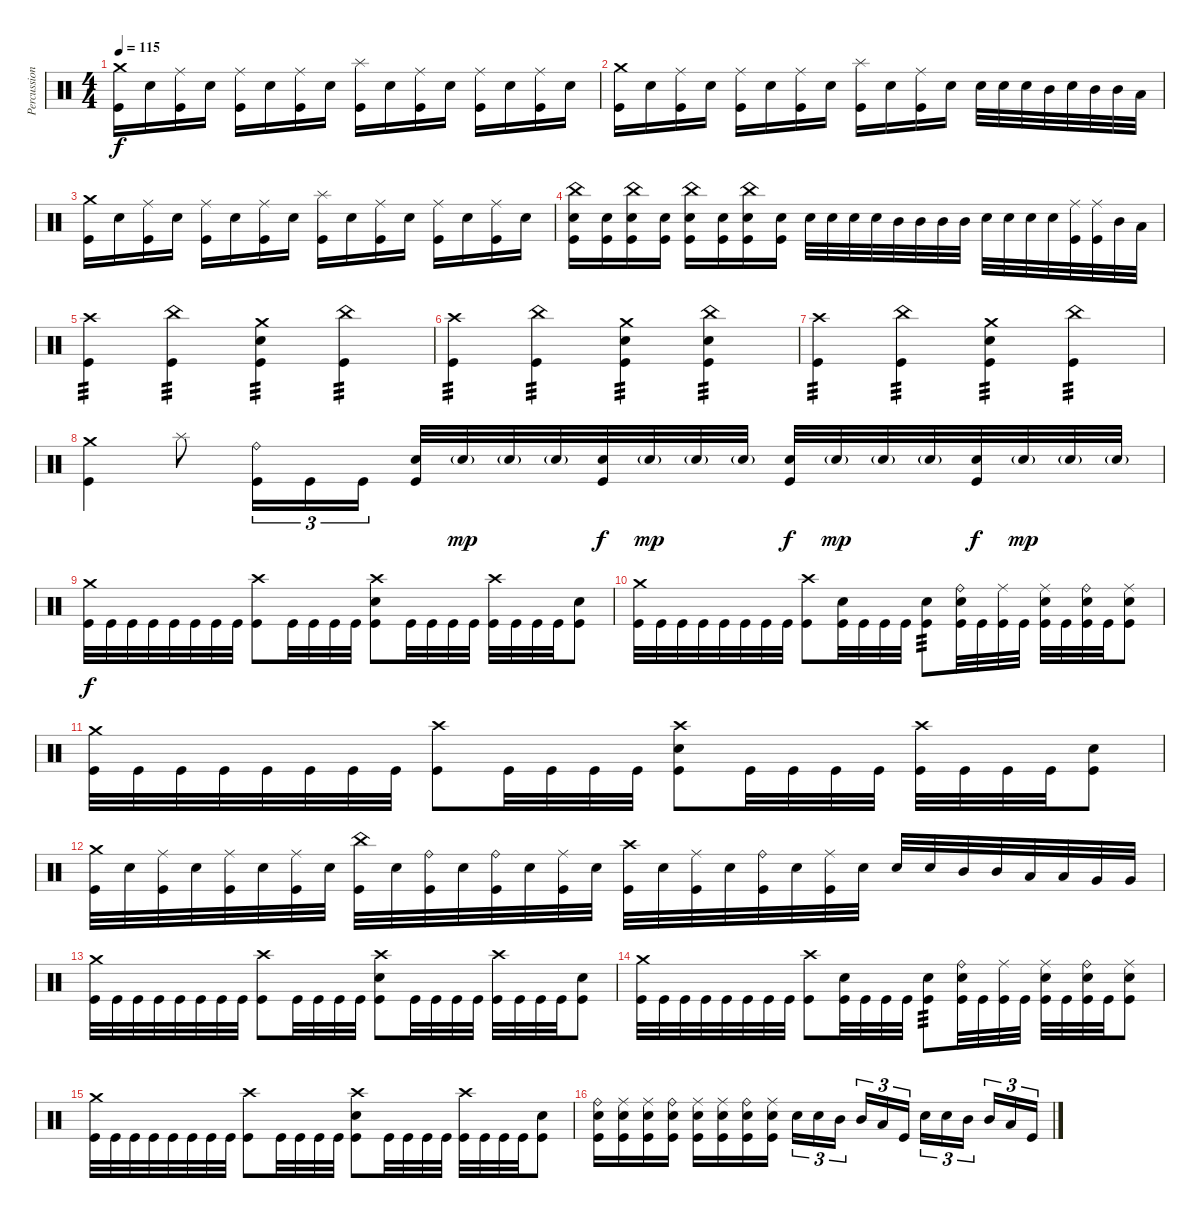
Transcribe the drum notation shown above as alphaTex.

\track ("Percussion" "Percussion") {instrument percussion}
\staff {score}
\articulation defaults
\ts (4 4)
\tempo 115
\clef neutral
\ks c
("Crash medium (hit)" "Kick (hit)").16{dy f} "Electric Snare (hit)".16 ("Ride (middle)" "Kick (hit)").16 "Electric Snare (hit)".16 ("Ride (middle)" "Kick (hit)").16 "Electric Snare (hit)".16 ("Ride (middle)" "Kick (hit)").16 "Electric Snare (hit)".16 ("Splash (hit)" "Kick (hit)").16 "Electric Snare (hit)".16 ("Ride (middle)" "Kick (hit)").16 "Electric Snare (hit)".16 ("Ride (middle)" "Kick (hit)").16 "Electric Snare (hit)".16 ("Ride (middle)" "Kick (hit)").16 "Electric Snare (hit)".16 |
("Crash medium (hit)" "Kick (hit)").16 "Electric Snare (hit)".16 ("Ride (middle)" "Kick (hit)").16 "Electric Snare (hit)".16 ("Ride (middle)" "Kick (hit)").16 "Electric Snare (hit)".16 ("Ride (middle)" "Kick (hit)").16 "Electric Snare (hit)".16 ("Splash (hit)" "Kick (hit)").16 "Electric Snare (hit)".16 ("Ride (middle)" "Kick (hit)").16 "Electric Snare (hit)".16 "Electric Snare (hit)".32 "Electric Snare (hit)".32 "Electric Snare (hit)".32 "Mid Tom (hit)".32 "Electric Snare (hit)".32 "Mid Tom (hit)".32 "Mid Tom (hit)".32 "Low Tom (hit)".32 |
("Crash medium (hit)" "Kick (hit)").16 "Electric Snare (hit)".16 ("Ride (middle)" "Kick (hit)").16 "Electric Snare (hit)".16 ("Ride (middle)" "Kick (hit)").16 "Electric Snare (hit)".16 ("Ride (middle)" "Kick (hit)").16 "Electric Snare (hit)".16 ("Splash (hit)" "Kick (hit)").16 "Electric Snare (hit)".16 ("Ride (middle)" "Kick (hit)").16 "Electric Snare (hit)".16 ("Ride (middle)" "Kick (hit)").16 "Electric Snare (hit)".16 ("Ride (middle)" "Kick (hit)").16 "Electric Snare (hit)".16 |
("China (hit)" "Electric Snare (hit)" "Kick (hit)").16 ("Electric Snare (hit)" "Kick (hit)").16 ("China (hit)" "Electric Snare (hit)" "Kick (hit)").16 ("Electric Snare (hit)" "Kick (hit)").16 ("China (hit)" "Electric Snare (hit)" "Kick (hit)").16 ("Electric Snare (hit)" "Kick (hit)").16 ("China (hit)" "Electric Snare (hit)" "Kick (hit)").16 ("Electric Snare (hit)" "Kick (hit)").16 "Electric Snare (hit)".32 "Electric Snare (hit)".32 "Electric Snare (hit)".32 "Electric Snare (hit)".32 "Mid Tom (hit)".32 "Mid Tom (hit)".32 "Mid Tom (hit)".32 "Mid Tom (hit)".32 "Electric Snare (hit)".32 "Electric Snare (hit)".32 "Electric Snare (hit)".32 "Electric Snare (hit)".32 ("Ride (middle)" "Kick (hit)").32 ("Ride (middle)" "Kick (hit)").32 "Mid Tom (hit)".32 "Low Tom (hit)".32 |
("Crash high (hit)" "Kick (hit)").4{tp 3} ("China (hit)" "Kick (hit)").4{tp 3} ("Crash medium (hit)" "Electric Snare (hit)" "Kick (hit)").4{tp 3} ("China (hit)" "Kick (hit)").4{tp 3} |
("Crash high (hit)" "Kick (hit)").4{tp 3} ("China (hit)" "Kick (hit)").4{tp 3} ("Crash medium (hit)" "Electric Snare (hit)" "Kick (hit)").4{tp 3} ("China (hit)" "Electric Snare (hit)" "Kick (hit)").4{tp 3} |
("Crash high (hit)" "Kick (hit)").4{tp 3} ("China (hit)" "Kick (hit)").4{tp 3} ("Crash medium (hit)" "Electric Snare (hit)" "Kick (hit)").4{tp 3} ("China (hit)" "Kick (hit)").4{tp 3} |
("Crash medium (hit)" "Kick (hit)").4 "Splash (hit)".8 ("Ride (bell)" "Kick (hit)").16{tu (3 2)} "Kick (hit)".16{tu (3 2)} "Kick (hit)".16{tu (3 2)} ("Electric Snare (hit)" "Kick (hit)").32 "Electric Snare (hit)"{g}.32{dy mp} "Electric Snare (hit)"{g}.32 "Electric Snare (hit)"{g}.32 ("Electric Snare (hit)" "Kick (hit)").32{dy f} "Electric Snare (hit)"{g}.32{dy mp} "Electric Snare (hit)"{g}.32 "Electric Snare (hit)"{g}.32 ("Electric Snare (hit)" "Kick (hit)").32{dy f} "Electric Snare (hit)"{g}.32{dy mp} "Electric Snare (hit)"{g}.32 "Electric Snare (hit)"{g}.32 ("Electric Snare (hit)" "Kick (hit)").32{dy f} "Electric Snare (hit)"{g}.32{dy mp} "Electric Snare (hit)"{g}.32 "Electric Snare (hit)"{g}.32 |
("Crash medium (hit)" "Kick (hit)").32{dy f} "Kick (hit)".32 "Kick (hit)".32 "Kick (hit)".32 "Kick (hit)".32 "Kick (hit)".32 "Kick (hit)".32 "Kick (hit)".32 ("Crash high (hit)" "Kick (hit)").8 "Kick (hit)".32 "Kick (hit)".32 "Kick (hit)".32 "Kick (hit)".32 ("Crash high (hit)" "Electric Snare (hit)" "Kick (hit)").8 "Kick (hit)".32 "Kick (hit)".32 "Kick (hit)".32 "Kick (hit)".32 ("Crash high (hit)" "Kick (hit)").32 "Kick (hit)".32 "Kick (hit)".32 "Kick (hit)".32 ("Electric Snare (hit)" "Kick (hit)").8 |
("Crash medium (hit)" "Kick (hit)").32 "Kick (hit)".32 "Kick (hit)".32 "Kick (hit)".32 "Kick (hit)".32 "Kick (hit)".32 "Kick (hit)".32 "Kick (hit)".32 ("Crash high (hit)" "Kick (hit)").8 ("Electric Snare (hit)" "Kick (hit)").32 "Kick (hit)".32 "Kick (hit)".32 "Kick (hit)".32 ("Electric Snare (hit)" "Kick (hit)").8{tp 3} ("Ride (bell)" "Electric Snare (hit)" "Kick (hit)").32 "Kick (hit)".32 ("Ride (middle)" "Kick (hit)").32 "Kick (hit)".32 ("Ride (middle)" "Electric Snare (hit)" "Kick (hit)").32 "Kick (hit)".32 ("Ride (bell)" "Electric Snare (hit)" "Kick (hit)").32 "Kick (hit)".32 ("Ride (middle)" "Electric Snare (hit)" "Kick (hit)").8 |
("Crash medium (hit)" "Kick (hit)").32 "Kick (hit)".32 "Kick (hit)".32 "Kick (hit)".32 "Kick (hit)".32 "Kick (hit)".32 "Kick (hit)".32 "Kick (hit)".32 ("Crash high (hit)" "Kick (hit)").8 "Kick (hit)".32 "Kick (hit)".32 "Kick (hit)".32 "Kick (hit)".32 ("Crash high (hit)" "Electric Snare (hit)" "Kick (hit)").8 "Kick (hit)".32 "Kick (hit)".32 "Kick (hit)".32 "Kick (hit)".32 ("Crash high (hit)" "Kick (hit)").32 "Kick (hit)".32 "Kick (hit)".32 "Kick (hit)".32 ("Electric Snare (hit)" "Kick (hit)").8 |
("Crash medium (hit)" "Kick (hit)").32 "Electric Snare (hit)".32 ("Ride (middle)" "Kick (hit)").32 "Electric Snare (hit)".32 ("Ride (middle)" "Kick (hit)").32 "Electric Snare (hit)".32 ("Ride (middle)" "Kick (hit)").32 "Electric Snare (hit)".32 ("China (hit)" "Kick (hit)").32 "Electric Snare (hit)".32 ("Ride (bell)" "Kick (hit)").32 "Electric Snare (hit)".32 ("Ride (bell)" "Kick (hit)").32 "Electric Snare (hit)".32 ("Ride (middle)" "Kick (hit)").32 "Electric Snare (hit)".32 ("Crash high (hit)" "Kick (hit)").32 "Electric Snare (hit)".32 ("Ride (middle)" "Kick (hit)").32 "Electric Snare (hit)".32 ("Ride (bell)" "Kick (hit)").32 "Electric Snare (hit)".32 ("Ride (middle)" "Kick (hit)").32 "Electric Snare (hit)".32 "Electric Snare (hit)".32 "Electric Snare (hit)".32 "Mid Tom (hit)".32 "Mid Tom (hit)".32 "Low Tom (hit)".32 "Low Tom (hit)".32 "Very Low Tom (hit)".32 "Very Low Tom (hit)".32 |
("Crash medium (hit)" "Kick (hit)").32 "Kick (hit)".32 "Kick (hit)".32 "Kick (hit)".32 "Kick (hit)".32 "Kick (hit)".32 "Kick (hit)".32 "Kick (hit)".32 ("Crash high (hit)" "Kick (hit)").8 "Kick (hit)".32 "Kick (hit)".32 "Kick (hit)".32 "Kick (hit)".32 ("Crash high (hit)" "Electric Snare (hit)" "Kick (hit)").8 "Kick (hit)".32 "Kick (hit)".32 "Kick (hit)".32 "Kick (hit)".32 ("Crash high (hit)" "Kick (hit)").32 "Kick (hit)".32 "Kick (hit)".32 "Kick (hit)".32 ("Electric Snare (hit)" "Kick (hit)").8 |
("Crash medium (hit)" "Kick (hit)").32 "Kick (hit)".32 "Kick (hit)".32 "Kick (hit)".32 "Kick (hit)".32 "Kick (hit)".32 "Kick (hit)".32 "Kick (hit)".32 ("Crash high (hit)" "Kick (hit)").8 ("Electric Snare (hit)" "Kick (hit)").32 "Kick (hit)".32 "Kick (hit)".32 "Kick (hit)".32 ("Electric Snare (hit)" "Kick (hit)").8{tp 3} ("Ride (bell)" "Electric Snare (hit)" "Kick (hit)").32 "Kick (hit)".32 ("Ride (middle)" "Kick (hit)").32 "Kick (hit)".32 ("Ride (middle)" "Electric Snare (hit)" "Kick (hit)").32 "Kick (hit)".32 ("Ride (bell)" "Electric Snare (hit)" "Kick (hit)").32 "Kick (hit)".32 ("Ride (middle)" "Electric Snare (hit)" "Kick (hit)").8 |
("Crash medium (hit)" "Kick (hit)").32 "Kick (hit)".32 "Kick (hit)".32 "Kick (hit)".32 "Kick (hit)".32 "Kick (hit)".32 "Kick (hit)".32 "Kick (hit)".32 ("Crash high (hit)" "Kick (hit)").8 "Kick (hit)".32 "Kick (hit)".32 "Kick (hit)".32 "Kick (hit)".32 ("Crash high (hit)" "Electric Snare (hit)" "Kick (hit)").8 "Kick (hit)".32 "Kick (hit)".32 "Kick (hit)".32 "Kick (hit)".32 ("Crash high (hit)" "Kick (hit)").32 "Kick (hit)".32 "Kick (hit)".32 "Kick (hit)".32 ("Electric Snare (hit)" "Kick (hit)").8 |
("Ride (bell)" "Electric Snare (hit)" "Kick (hit)").16 ("Ride (middle)" "Electric Snare (hit)" "Kick (hit)").16 ("Ride (middle)" "Electric Snare (hit)" "Kick (hit)").16 ("Ride (bell)" "Electric Snare (hit)" "Kick (hit)").16 ("Ride (middle)" "Electric Snare (hit)" "Kick (hit)").16 ("Ride (middle)" "Electric Snare (hit)" "Kick (hit)").16 ("Ride (bell)" "Electric Snare (hit)" "Kick (hit)").16 ("Ride (middle)" "Electric Snare (hit)" "Kick (hit)").16 "Electric Snare (hit)".16{tu (3 2)} "Electric Snare (hit)".16{tu (3 2)} "Mid Tom (hit)".16{tu (3 2) beam splitsecondary} "Mid Tom (hit)".16{tu (3 2)} "Low Tom (hit)".16{tu (3 2)} "Kick (hit)".16{tu (3 2)} "Electric Snare (hit)".16{tu (3 2)} "Electric Snare (hit)".16{tu (3 2)} "Mid Tom (hit)".16{tu (3 2) beam splitsecondary} "Mid Tom (hit)".16{tu (3 2)} "Low Tom (hit)".16{tu (3 2)} "Kick (hit)".16{tu (3 2)}
